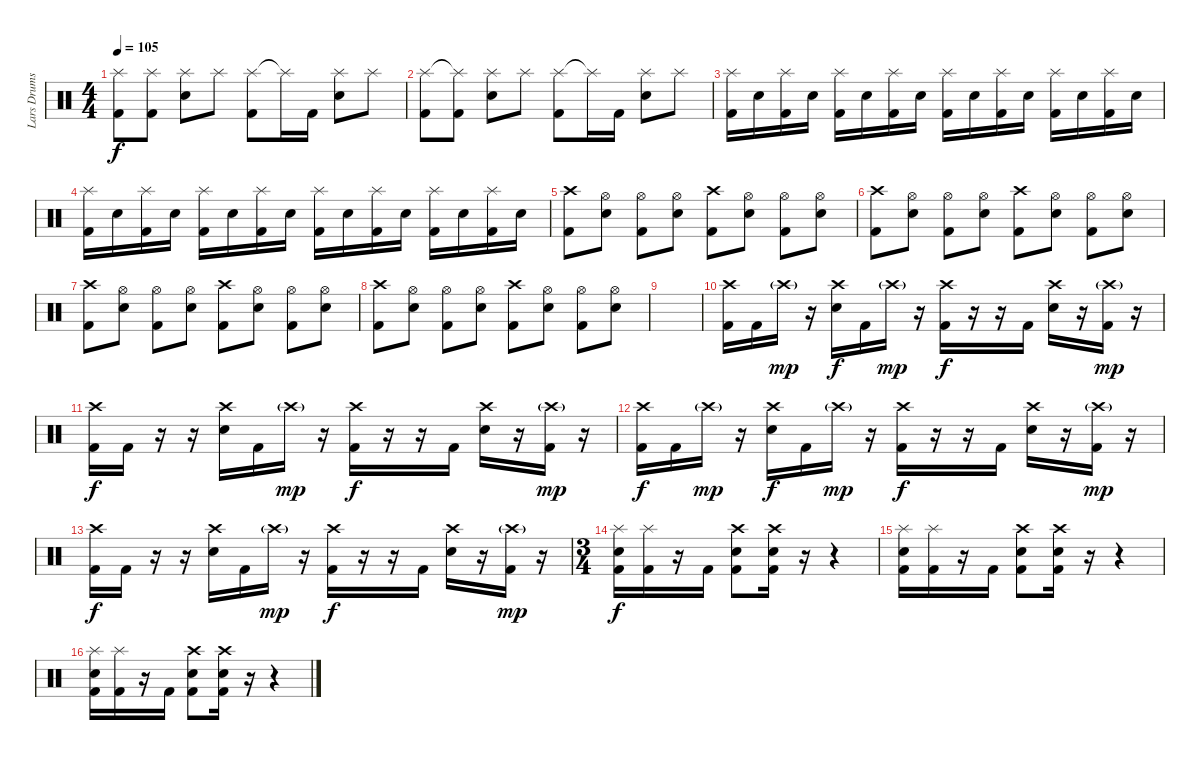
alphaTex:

\track ("Lars Drums" "Lars Drums") {instrument percussion}
\staff {score}
\articulation defaults
\ts (4 4)
\tempo 105
\clef neutral
\ks c
("Splash (hit)" "Kick (hit) 2").8{dy f} ("Splash (hit)" "Kick (hit) 2").8 ("Splash (hit)" "Snare (hit) 2").8 "Splash (hit)".8 ("Splash (hit)" "Kick (hit) 2").8 "Splash (hit)"{t}.16 "Kick (hit) 2".16 ("Splash (hit)" "Snare (hit) 2").8 "Splash (hit)".8 |
("Splash (hit)" "Kick (hit) 2").8 ("Splash (hit)"{t} "Kick (hit) 2").8 ("Splash (hit)" "Snare (hit) 2").8 "Splash (hit)".8 ("Splash (hit)" "Kick (hit) 2").8 "Splash (hit)"{t}.16 "Kick (hit) 2".16 ("Splash (hit)" "Snare (hit) 2").8 "Splash (hit)".8 |
("Splash (hit)" "Kick (hit) 2").16 "Snare (hit) 2".16 ("Splash (hit)" "Kick (hit) 2").16 "Snare (hit) 2".16 ("Splash (hit)" "Kick (hit) 2").16 "Snare (hit) 2".16 ("Splash (hit)" "Kick (hit) 2").16 "Snare (hit) 2".16 ("Splash (hit)" "Kick (hit) 2").16 "Snare (hit) 2".16 ("Splash (hit)" "Kick (hit) 2").16 "Snare (hit) 2".16 ("Splash (hit)" "Kick (hit) 2").16 "Snare (hit) 2".16 ("Splash (hit)" "Kick (hit) 2").16 "Snare (hit) 2".16 |
("Splash (hit)" "Kick (hit) 2").16 "Snare (hit) 2".16 ("Splash (hit)" "Kick (hit) 2").16 "Snare (hit) 2".16 ("Splash (hit)" "Kick (hit) 2").16 "Snare (hit) 2".16 ("Splash (hit)" "Kick (hit) 2").16 "Snare (hit) 2".16 ("Splash (hit)" "Kick (hit) 2").16 "Snare (hit) 2".16 ("Splash (hit)" "Kick (hit) 2").16 "Snare (hit) 2".16 ("Splash (hit)" "Kick (hit) 2").16 "Snare (hit) 2".16 ("Splash (hit)" "Kick (hit) 2").16 "Snare (hit) 2".16 |
("Crash high (hit)" "Kick (hit) 2").8 ("Hi-Hat (open)" "Snare (hit) 2").8 ("Hi-Hat (open)" "Kick (hit) 2").8 ("Hi-Hat (open)" "Snare (hit) 2").8 ("Crash high (hit)" "Kick (hit) 2").8 ("Hi-Hat (open)" "Snare (hit) 2").8 ("Hi-Hat (open)" "Kick (hit) 2").8 ("Hi-Hat (open)" "Snare (hit) 2").8 |
("Crash high (hit)" "Kick (hit) 2").8 ("Hi-Hat (open)" "Snare (hit) 2").8 ("Hi-Hat (open)" "Kick (hit) 2").8 ("Hi-Hat (open)" "Snare (hit) 2").8 ("Crash high (hit)" "Kick (hit) 2").8 ("Hi-Hat (open)" "Snare (hit) 2").8 ("Hi-Hat (open)" "Kick (hit) 2").8 ("Hi-Hat (open)" "Snare (hit) 2").8 |
("Crash high (hit)" "Kick (hit) 2").8 ("Hi-Hat (open)" "Snare (hit) 2").8 ("Hi-Hat (open)" "Kick (hit) 2").8 ("Hi-Hat (open)" "Snare (hit) 2").8 ("Crash high (hit)" "Kick (hit) 2").8 ("Hi-Hat (open)" "Snare (hit) 2").8 ("Hi-Hat (open)" "Kick (hit) 2").8 ("Hi-Hat (open)" "Snare (hit) 2").8 |
("Crash high (hit)" "Kick (hit) 2").8 ("Hi-Hat (open)" "Snare (hit) 2").8 ("Hi-Hat (open)" "Kick (hit) 2").8 ("Hi-Hat (open)" "Snare (hit) 2").8 ("Crash high (hit)" "Kick (hit) 2").8 ("Hi-Hat (open)" "Snare (hit) 2").8 ("Hi-Hat (open)" "Kick (hit) 2").8 ("Hi-Hat (open)" "Snare (hit) 2").8 |
|
("Crash high (hit)" "Kick (hit) 2").16 "Kick (hit) 2".16 "Crash high (hit)"{g}.16{dy mp} r.16 ("Crash high (hit)" "Snare (hit) 2").16{dy f} "Kick (hit) 2".16 "Crash high (hit)"{g}.16{dy mp} r.16 ("Crash high (hit)" "Kick (hit) 2").16{dy f} r.16 r.16 "Kick (hit) 2".16 ("Crash high (hit)" "Snare (hit) 2").16 r.16 ("Crash high (hit)"{g} "Kick (hit) 2").16{dy mp} r.16 |
("Crash high (hit)" "Kick (hit) 2").16{dy f} "Kick (hit) 2".16 r.16 r.16 ("Crash high (hit)" "Snare (hit) 2").16 "Kick (hit) 2".16 "Crash high (hit)"{g}.16{dy mp} r.16 ("Crash high (hit)" "Kick (hit) 2").16{dy f} r.16 r.16 "Kick (hit) 2".16 ("Crash high (hit)" "Snare (hit) 2").16 r.16 ("Crash high (hit)"{g} "Kick (hit) 2").16{dy mp} r.16 |
("Crash high (hit)" "Kick (hit) 2").16{dy f} "Kick (hit) 2".16 "Crash high (hit)"{g}.16{dy mp} r.16 ("Crash high (hit)" "Snare (hit) 2").16{dy f} "Kick (hit) 2".16 "Crash high (hit)"{g}.16{dy mp} r.16 ("Crash high (hit)" "Kick (hit) 2").16{dy f} r.16 r.16 "Kick (hit) 2".16 ("Crash high (hit)" "Snare (hit) 2").16 r.16 ("Crash high (hit)"{g} "Kick (hit) 2").16{dy mp} r.16 |
("Crash high (hit)" "Kick (hit) 2").16{dy f} "Kick (hit) 2".16 r.16 r.16 ("Crash high (hit)" "Snare (hit) 2").16 "Kick (hit) 2".16 "Crash high (hit)"{g}.16{dy mp} r.16 ("Crash high (hit)" "Kick (hit) 2").16{dy f} r.16 r.16 "Kick (hit) 2".16 ("Crash high (hit)" "Snare (hit) 2").16 r.16 ("Crash high (hit)"{g} "Kick (hit) 2").16{dy mp} r.16 |
\ts (3 4)
("Splash (hit)" "Snare (hit) 2" "Kick (hit) 2").16{dy f} ("Splash (hit)" "Kick (hit) 2").16 r.16 "Kick (hit) 2".16 ("Crash high (hit)" "Snare (hit) 2" "Kick (hit) 2").8 ("Crash high (hit)" "Snare (hit) 2" "Kick (hit) 2").16 r.16 r.4 |
("Splash (hit)" "Snare (hit) 2" "Kick (hit) 2").16 ("Splash (hit)" "Kick (hit) 2").16 r.16 "Kick (hit) 2".16 ("Crash high (hit)" "Snare (hit) 2" "Kick (hit) 2").8 ("Crash high (hit)" "Snare (hit) 2" "Kick (hit) 2").16 r.16 r.4 |
("Splash (hit)" "Snare (hit) 2" "Kick (hit) 2").16 ("Splash (hit)" "Kick (hit) 2").16 r.16 "Kick (hit) 2".16 ("Crash high (hit)" "Snare (hit) 2" "Kick (hit) 2").8 ("Crash high (hit)" "Snare (hit) 2" "Kick (hit) 2").16 r.16 r.4
